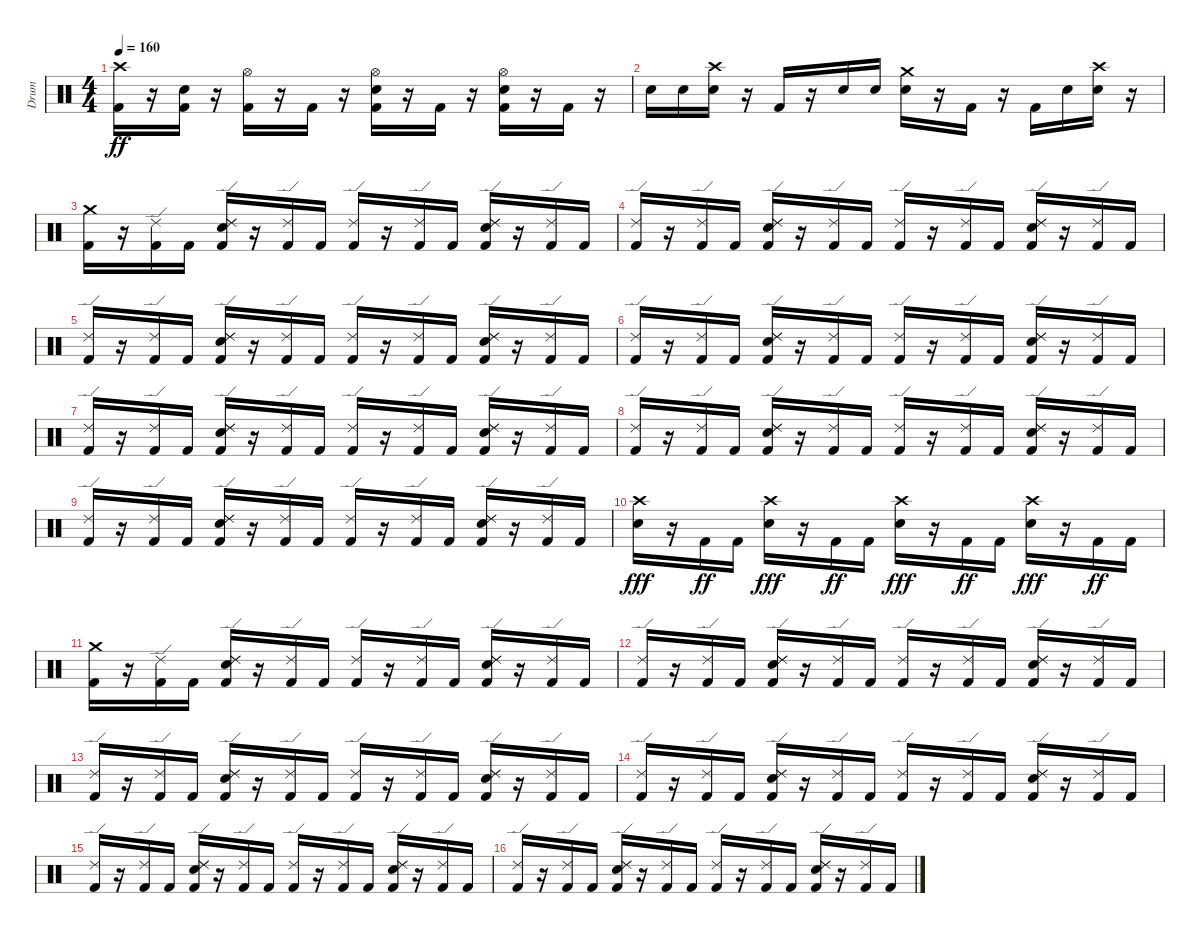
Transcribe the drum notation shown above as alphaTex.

\track ("Drum" "Drum") {instrument percussion}
\staff {score}
\articulation defaults
\ts (4 4)
\tempo 160
\clef neutral
\ks c
("Crash high (hit)" "Kick (hit) 2").16{dy ff} r.16 ("Snare (hit) 2" "Kick (hit) 2").16 r.16 ("Hi-Hat (open)" "Kick (hit) 2").16 r.16 "Kick (hit) 2".16 r.16 ("Hi-Hat (open)" "Snare (hit) 2" "Kick (hit) 2").16 r.16 "Kick (hit) 2".16 r.16 ("Hi-Hat (open)" "Snare (hit) 2" "Kick (hit) 2").16 r.16 "Kick (hit) 2".16 r.16 |
"Snare (hit) 2".16 "Snare (hit) 2".16 ("Crash high (hit)" "Snare (hit) 2").16 r.16 "Kick (hit) 2".16 r.16 "Snare (hit) 2".16 "Snare (hit) 2".16 ("Crash medium (hit)" "Snare (hit) 2").16 r.16 "Kick (hit) 2".16 r.16 "Kick (hit) 2".16 "Snare (hit) 2".16 ("Crash high (hit)" "Snare (hit) 2").16 r.16 |
("Crash medium (hit)" "Kick (hit) 2").16 r.16 ("Ride (edge) 2" "Kick (hit) 2").16 "Kick (hit) 2".16 ("Ride (edge) 2" "Snare (hit) 2" "Kick (hit) 2" "Ride (edge) 2").16 r.16 ("Ride (edge) 2" "Kick (hit) 2").16 "Kick (hit) 2".16 ("Ride (edge) 2" "Kick (hit) 2").16 r.16 ("Ride (edge) 2" "Kick (hit) 2").16 "Kick (hit) 2".16 ("Ride (edge) 2" "Snare (hit) 2" "Kick (hit) 2" "Ride (edge) 2").16 r.16 ("Ride (edge) 2" "Kick (hit) 2").16 "Kick (hit) 2".16 |
("Ride (edge) 2" "Kick (hit) 2").16 r.16 ("Ride (edge) 2" "Kick (hit) 2").16 "Kick (hit) 2".16 ("Ride (edge) 2" "Snare (hit) 2" "Kick (hit) 2" "Ride (edge) 2").16 r.16 ("Ride (edge) 2" "Kick (hit) 2").16 "Kick (hit) 2".16 ("Ride (edge) 2" "Kick (hit) 2").16 r.16 ("Ride (edge) 2" "Kick (hit) 2").16 "Kick (hit) 2".16 ("Ride (edge) 2" "Snare (hit) 2" "Kick (hit) 2" "Ride (edge) 2").16 r.16 ("Ride (edge) 2" "Kick (hit) 2").16 "Kick (hit) 2".16 |
("Ride (edge) 2" "Kick (hit) 2").16 r.16 ("Ride (edge) 2" "Kick (hit) 2").16 "Kick (hit) 2".16 ("Ride (edge) 2" "Snare (hit) 2" "Kick (hit) 2" "Ride (edge) 2").16 r.16 ("Ride (edge) 2" "Kick (hit) 2").16 "Kick (hit) 2".16 ("Ride (edge) 2" "Kick (hit) 2").16 r.16 ("Ride (edge) 2" "Kick (hit) 2").16 "Kick (hit) 2".16 ("Ride (edge) 2" "Snare (hit) 2" "Kick (hit) 2" "Ride (edge) 2").16 r.16 ("Ride (edge) 2" "Kick (hit) 2").16 "Kick (hit) 2".16 |
("Ride (edge) 2" "Kick (hit) 2").16 r.16 ("Ride (edge) 2" "Kick (hit) 2").16 "Kick (hit) 2".16 ("Ride (edge) 2" "Snare (hit) 2" "Kick (hit) 2" "Ride (edge) 2").16 r.16 ("Ride (edge) 2" "Kick (hit) 2").16 "Kick (hit) 2".16 ("Ride (edge) 2" "Kick (hit) 2").16 r.16 ("Ride (edge) 2" "Kick (hit) 2").16 "Kick (hit) 2".16 ("Ride (edge) 2" "Snare (hit) 2" "Kick (hit) 2" "Ride (edge) 2").16 r.16 ("Ride (edge) 2" "Kick (hit) 2").16 "Kick (hit) 2".16 |
("Ride (edge) 2" "Kick (hit) 2").16 r.16 ("Ride (edge) 2" "Kick (hit) 2").16 "Kick (hit) 2".16 ("Ride (edge) 2" "Snare (hit) 2" "Kick (hit) 2" "Ride (edge) 2").16 r.16 ("Ride (edge) 2" "Kick (hit) 2").16 "Kick (hit) 2".16 ("Ride (edge) 2" "Kick (hit) 2").16 r.16 ("Ride (edge) 2" "Kick (hit) 2").16 "Kick (hit) 2".16 ("Ride (edge) 2" "Snare (hit) 2" "Kick (hit) 2" "Ride (edge) 2").16 r.16 ("Ride (edge) 2" "Kick (hit) 2").16 "Kick (hit) 2".16 |
("Ride (edge) 2" "Kick (hit) 2").16 r.16 ("Ride (edge) 2" "Kick (hit) 2").16 "Kick (hit) 2".16 ("Ride (edge) 2" "Snare (hit) 2" "Kick (hit) 2" "Ride (edge) 2").16 r.16 ("Ride (edge) 2" "Kick (hit) 2").16 "Kick (hit) 2".16 ("Ride (edge) 2" "Kick (hit) 2").16 r.16 ("Ride (edge) 2" "Kick (hit) 2").16 "Kick (hit) 2".16 ("Ride (edge) 2" "Snare (hit) 2" "Kick (hit) 2" "Ride (edge) 2").16 r.16 ("Ride (edge) 2" "Kick (hit) 2").16 "Kick (hit) 2".16 |
("Ride (edge) 2" "Kick (hit) 2").16 r.16 ("Ride (edge) 2" "Kick (hit) 2").16 "Kick (hit) 2".16 ("Ride (edge) 2" "Snare (hit) 2" "Kick (hit) 2" "Ride (edge) 2").16 r.16 ("Ride (edge) 2" "Kick (hit) 2").16 "Kick (hit) 2".16 ("Ride (edge) 2" "Kick (hit) 2").16 r.16 ("Ride (edge) 2" "Kick (hit) 2").16 "Kick (hit) 2".16 ("Ride (edge) 2" "Snare (hit) 2" "Kick (hit) 2" "Ride (edge) 2").16 r.16 ("Ride (edge) 2" "Kick (hit) 2").16 "Kick (hit) 2".16 |
("Crash high (hit)" "Snare (hit) 2").16{dy fff} r.16 "Kick (hit) 2".16{dy ff} "Kick (hit) 2".16 ("Crash high (hit)" "Snare (hit) 2").16{dy fff} r.16 "Kick (hit) 2".16{dy ff} "Kick (hit) 2".16 ("Crash high (hit)" "Snare (hit) 2").16{dy fff} r.16 "Kick (hit) 2".16{dy ff} "Kick (hit) 2".16 ("Crash high (hit)" "Snare (hit) 2").16{dy fff} r.16 "Kick (hit) 2".16{dy ff} "Kick (hit) 2".16 |
("Crash medium (hit)" "Kick (hit) 2").16 r.16 ("Ride (edge) 2" "Kick (hit) 2").16 "Kick (hit) 2".16 ("Ride (edge) 2" "Snare (hit) 2" "Kick (hit) 2" "Ride (edge) 2").16 r.16 ("Ride (edge) 2" "Kick (hit) 2").16 "Kick (hit) 2".16 ("Ride (edge) 2" "Kick (hit) 2").16 r.16 ("Ride (edge) 2" "Kick (hit) 2").16 "Kick (hit) 2".16 ("Ride (edge) 2" "Snare (hit) 2" "Kick (hit) 2" "Ride (edge) 2").16 r.16 ("Ride (edge) 2" "Kick (hit) 2").16 "Kick (hit) 2".16 |
("Ride (edge) 2" "Kick (hit) 2").16 r.16 ("Ride (edge) 2" "Kick (hit) 2").16 "Kick (hit) 2".16 ("Ride (edge) 2" "Snare (hit) 2" "Kick (hit) 2" "Ride (edge) 2").16 r.16 ("Ride (edge) 2" "Kick (hit) 2").16 "Kick (hit) 2".16 ("Ride (edge) 2" "Kick (hit) 2").16 r.16 ("Ride (edge) 2" "Kick (hit) 2").16 "Kick (hit) 2".16 ("Ride (edge) 2" "Snare (hit) 2" "Kick (hit) 2" "Ride (edge) 2").16 r.16 ("Ride (edge) 2" "Kick (hit) 2").16 "Kick (hit) 2".16 |
("Ride (edge) 2" "Kick (hit) 2").16 r.16 ("Ride (edge) 2" "Kick (hit) 2").16 "Kick (hit) 2".16 ("Ride (edge) 2" "Snare (hit) 2" "Kick (hit) 2" "Ride (edge) 2").16 r.16 ("Ride (edge) 2" "Kick (hit) 2").16 "Kick (hit) 2".16 ("Ride (edge) 2" "Kick (hit) 2").16 r.16 ("Ride (edge) 2" "Kick (hit) 2").16 "Kick (hit) 2".16 ("Ride (edge) 2" "Snare (hit) 2" "Kick (hit) 2" "Ride (edge) 2").16 r.16 ("Ride (edge) 2" "Kick (hit) 2").16 "Kick (hit) 2".16 |
("Ride (edge) 2" "Kick (hit) 2").16 r.16 ("Ride (edge) 2" "Kick (hit) 2").16 "Kick (hit) 2".16 ("Ride (edge) 2" "Snare (hit) 2" "Kick (hit) 2" "Ride (edge) 2").16 r.16 ("Ride (edge) 2" "Kick (hit) 2").16 "Kick (hit) 2".16 ("Ride (edge) 2" "Kick (hit) 2").16 r.16 ("Ride (edge) 2" "Kick (hit) 2").16 "Kick (hit) 2".16 ("Ride (edge) 2" "Snare (hit) 2" "Kick (hit) 2" "Ride (edge) 2").16 r.16 ("Ride (edge) 2" "Kick (hit) 2").16 "Kick (hit) 2".16 |
("Ride (edge) 2" "Kick (hit) 2").16 r.16 ("Ride (edge) 2" "Kick (hit) 2").16 "Kick (hit) 2".16 ("Ride (edge) 2" "Snare (hit) 2" "Kick (hit) 2" "Ride (edge) 2").16 r.16 ("Ride (edge) 2" "Kick (hit) 2").16 "Kick (hit) 2".16 ("Ride (edge) 2" "Kick (hit) 2").16 r.16 ("Ride (edge) 2" "Kick (hit) 2").16 "Kick (hit) 2".16 ("Ride (edge) 2" "Snare (hit) 2" "Kick (hit) 2" "Ride (edge) 2").16 r.16 ("Ride (edge) 2" "Kick (hit) 2").16 "Kick (hit) 2".16 |
("Ride (edge) 2" "Kick (hit) 2").16 r.16 ("Ride (edge) 2" "Kick (hit) 2").16 "Kick (hit) 2".16 ("Ride (edge) 2" "Snare (hit) 2" "Kick (hit) 2" "Ride (edge) 2").16 r.16 ("Ride (edge) 2" "Kick (hit) 2").16 "Kick (hit) 2".16 ("Ride (edge) 2" "Kick (hit) 2").16 r.16 ("Ride (edge) 2" "Kick (hit) 2").16 "Kick (hit) 2".16 ("Ride (edge) 2" "Snare (hit) 2" "Kick (hit) 2" "Ride (edge) 2").16 r.16 ("Ride (edge) 2" "Kick (hit) 2").16 "Kick (hit) 2".16
